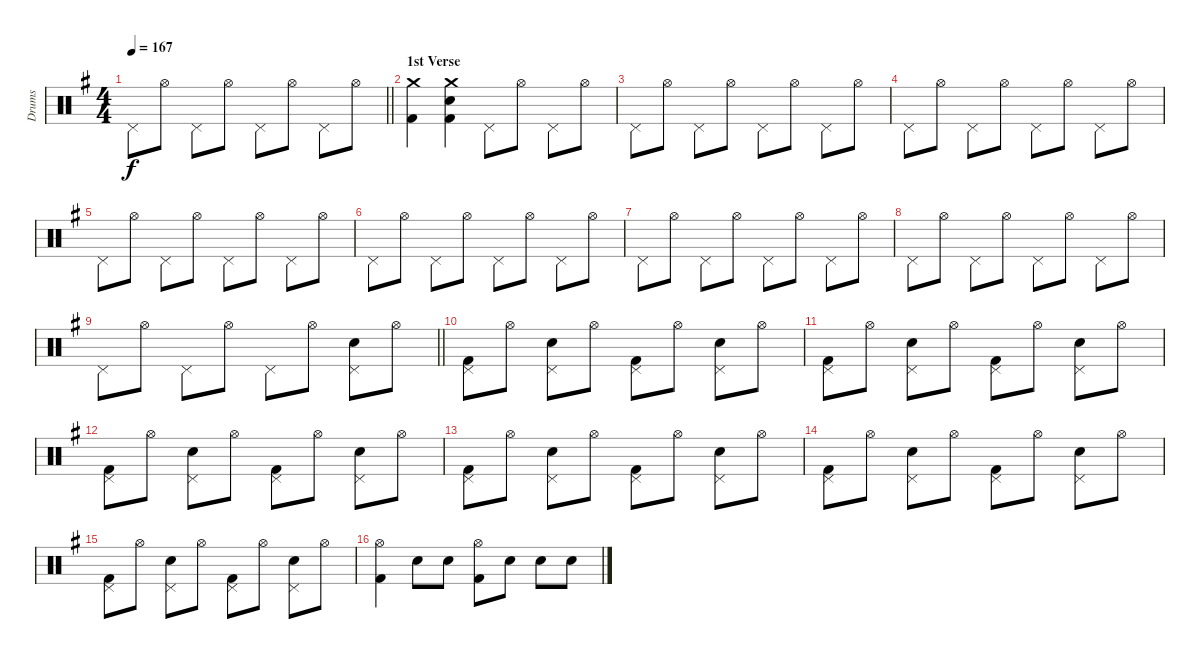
\track ("Drums" "Drums") {instrument percussion}
\staff {score}
\articulation defaults
\ts (4 4)
\tempo 167
\clef neutral
\barLineRight lightlight
\ks eminor "Pedal Hi-Hat (hit)".8{dy f} "Hi-Hat (open)".8 "Pedal Hi-Hat (hit)".8 "Hi-Hat (open)".8 "Pedal Hi-Hat (hit)".8 "Hi-Hat (open)".8 "Pedal Hi-Hat (hit)".8 "Hi-Hat (open)".8
|
\section ("" "1st Verse")
("Crash medium (hit)" "Kick (hit) 2").4 ("Crash medium (hit)" "Snare (hit) 2" "Kick (hit) 2").4 "Pedal Hi-Hat (hit)".8 "Hi-Hat (open)".8 "Pedal Hi-Hat (hit)".8 "Hi-Hat (open)".8 |
"Pedal Hi-Hat (hit)".8 "Hi-Hat (open)".8 "Pedal Hi-Hat (hit)".8 "Hi-Hat (open)".8 "Pedal Hi-Hat (hit)".8 "Hi-Hat (open)".8 "Pedal Hi-Hat (hit)".8 "Hi-Hat (open)".8 |
"Pedal Hi-Hat (hit)".8 "Hi-Hat (open)".8 "Pedal Hi-Hat (hit)".8 "Hi-Hat (open)".8 "Pedal Hi-Hat (hit)".8 "Hi-Hat (open)".8 "Pedal Hi-Hat (hit)".8 "Hi-Hat (open)".8 |
"Pedal Hi-Hat (hit)".8 "Hi-Hat (open)".8 "Pedal Hi-Hat (hit)".8 "Hi-Hat (open)".8 "Pedal Hi-Hat (hit)".8 "Hi-Hat (open)".8 "Pedal Hi-Hat (hit)".8 "Hi-Hat (open)".8 |
"Pedal Hi-Hat (hit)".8 "Hi-Hat (open)".8 "Pedal Hi-Hat (hit)".8 "Hi-Hat (open)".8 "Pedal Hi-Hat (hit)".8 "Hi-Hat (open)".8 "Pedal Hi-Hat (hit)".8 "Hi-Hat (open)".8 |
"Pedal Hi-Hat (hit)".8 "Hi-Hat (open)".8 "Pedal Hi-Hat (hit)".8 "Hi-Hat (open)".8 "Pedal Hi-Hat (hit)".8 "Hi-Hat (open)".8 "Pedal Hi-Hat (hit)".8 "Hi-Hat (open)".8 |
"Pedal Hi-Hat (hit)".8 "Hi-Hat (open)".8 "Pedal Hi-Hat (hit)".8 "Hi-Hat (open)".8 "Pedal Hi-Hat (hit)".8 "Hi-Hat (open)".8 "Pedal Hi-Hat (hit)".8 "Hi-Hat (open)".8 |
\barLineRight lightlight "Pedal Hi-Hat (hit)".8 "Hi-Hat (open)".8 "Pedal Hi-Hat (hit)".8 "Hi-Hat (open)".8 "Pedal Hi-Hat (hit)".8 "Hi-Hat (open)".8
("Pedal Hi-Hat (hit)" "Snare (hit) 2").8 "Hi-Hat (open)".8 |
("Pedal Hi-Hat (hit)" "Kick (hit) 2").8 "Hi-Hat (open)".8 ("Pedal Hi-Hat (hit)" "Snare (hit) 2").8 "Hi-Hat (open)".8 ("Pedal Hi-Hat (hit)" "Kick (hit) 2").8 "Hi-Hat (open)".8 ("Pedal Hi-Hat (hit)" "Snare (hit) 2").8 "Hi-Hat (open)".8 |
("Pedal Hi-Hat (hit)" "Kick (hit) 2").8 "Hi-Hat (open)".8 ("Pedal Hi-Hat (hit)" "Snare (hit) 2").8 "Hi-Hat (open)".8 ("Pedal Hi-Hat (hit)" "Kick (hit) 2").8 "Hi-Hat (open)".8 ("Pedal Hi-Hat (hit)" "Snare (hit) 2").8 "Hi-Hat (open)".8 |
("Pedal Hi-Hat (hit)" "Kick (hit) 2").8 "Hi-Hat (open)".8 ("Pedal Hi-Hat (hit)" "Snare (hit) 2").8 "Hi-Hat (open)".8 ("Pedal Hi-Hat (hit)" "Kick (hit) 2").8 "Hi-Hat (open)".8 ("Pedal Hi-Hat (hit)" "Snare (hit) 2").8 "Hi-Hat (open)".8 |
("Pedal Hi-Hat (hit)" "Kick (hit) 2").8 "Hi-Hat (open)".8 ("Pedal Hi-Hat (hit)" "Snare (hit) 2").8 "Hi-Hat (open)".8 ("Pedal Hi-Hat (hit)" "Kick (hit) 2").8 "Hi-Hat (open)".8 ("Pedal Hi-Hat (hit)" "Snare (hit) 2").8 "Hi-Hat (open)".8 |
("Pedal Hi-Hat (hit)" "Kick (hit) 2").8 "Hi-Hat (open)".8 ("Pedal Hi-Hat (hit)" "Snare (hit) 2").8 "Hi-Hat (open)".8 ("Pedal Hi-Hat (hit)" "Kick (hit) 2").8 "Hi-Hat (open)".8 ("Pedal Hi-Hat (hit)" "Snare (hit) 2").8 "Hi-Hat (open)".8 |
("Pedal Hi-Hat (hit)" "Kick (hit) 2").8 "Hi-Hat (open)".8 ("Pedal Hi-Hat (hit)" "Snare (hit) 2").8 "Hi-Hat (open)".8 ("Pedal Hi-Hat (hit)" "Kick (hit) 2").8 "Hi-Hat (open)".8 ("Pedal Hi-Hat (hit)" "Snare (hit) 2").8 "Hi-Hat (open)".8 |
("Hi-Hat (open)" "Kick (hit) 2").4 "Snare (hit) 2".8 "Snare (hit) 2".8 ("Hi-Hat (open)" "Kick (hit) 2").8 "Snare (hit) 2".8 "Snare (hit) 2".8 "Snare (hit) 2".8
